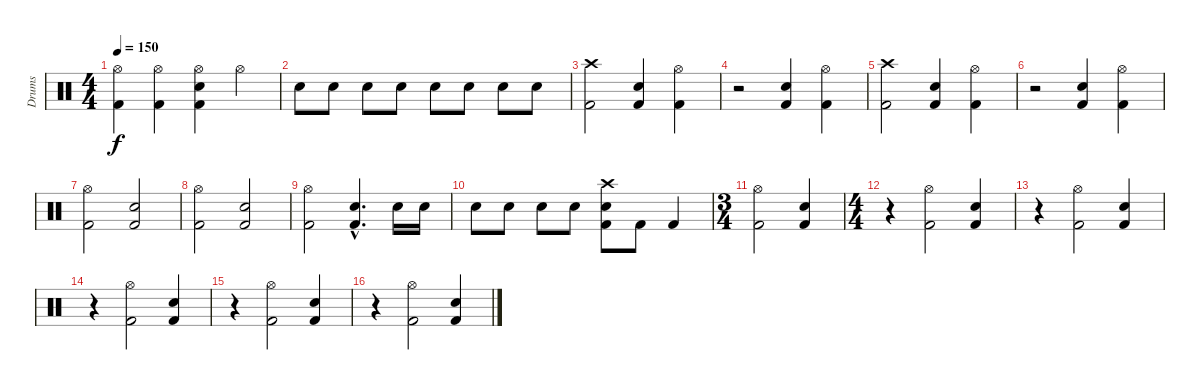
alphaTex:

\track ("Drums" "Drums") {instrument percussion}
\staff {score}
\articulation defaults
\ts (4 4)
\tempo 150
\clef neutral
\ks c
("Hi-Hat (open)" "Kick (hit) 2").4{dy f} ("Hi-Hat (open)" "Kick (hit) 2").4 ("Hi-Hat (open)" "Electric Snare (hit)" "Kick (hit) 2").4 "Hi-Hat (open)".4 |
"Electric Snare (hit)".8 "Electric Snare (hit)".8 "Electric Snare (hit)".8 "Electric Snare (hit)".8 "Snare (hit) 2".8 "Snare (hit) 2".8 "Snare (hit) 2".8 "Snare (hit) 2".8 |
("Crash high (hit)" "Kick (hit) 2").2 ("Electric Snare (hit)" "Kick (hit) 2").4 ("Hi-Hat (open)" "Kick (hit) 2").4 |
r.2 ("Electric Snare (hit)" "Kick (hit) 2").4 ("Hi-Hat (open)" "Kick (hit) 2").4 |
("Crash high (hit)" "Kick (hit) 2").2 ("Electric Snare (hit)" "Kick (hit) 2").4 ("Hi-Hat (open)" "Kick (hit) 2").4 |
r.2 ("Electric Snare (hit)" "Kick (hit) 2").4 ("Hi-Hat (open)" "Kick (hit) 2").4 |
("Hi-Hat (open)" "Kick (hit) 2").2 ("Electric Snare (hit)" "Kick (hit) 2").2 |
("Hi-Hat (open)" "Kick (hit) 2").2 ("Electric Snare (hit)" "Kick (hit) 2").2 |
("Hi-Hat (open)" "Kick (hit) 2").2 ("Electric Snare (hit)"{hac} "Kick (hit) 2"{hac}).4{d} "Electric Snare (hit)".16 "Electric Snare (hit)".16 |
"Electric Snare (hit)".8 "Electric Snare (hit)".8 "Snare (hit) 2".8 "Snare (hit) 2".8 ("Crash high (hit)" "Electric Snare (hit)" "Kick (hit) 2").8 "Kick (hit) 2".8 "Kick (hit) 2".4 |
\ts (3 4)
("Hi-Hat (open)" "Kick (hit) 2").2 ("Electric Snare (hit)" "Kick (hit) 2").4 |
\ts (4 4)
r.4 ("Hi-Hat (open)" "Kick (hit) 2").2 ("Electric Snare (hit)" "Kick (hit) 2").4 |
r.4 ("Hi-Hat (open)" "Kick (hit) 2").2 ("Electric Snare (hit)" "Kick (hit) 2").4 |
r.4 ("Hi-Hat (open)" "Kick (hit) 2").2 ("Electric Snare (hit)" "Kick (hit) 2").4 |
r.4 ("Hi-Hat (open)" "Kick (hit) 2").2 ("Electric Snare (hit)" "Kick (hit) 2").4 |
r.4 ("Hi-Hat (open)" "Kick (hit) 2").2 ("Electric Snare (hit)" "Kick (hit) 2").4
